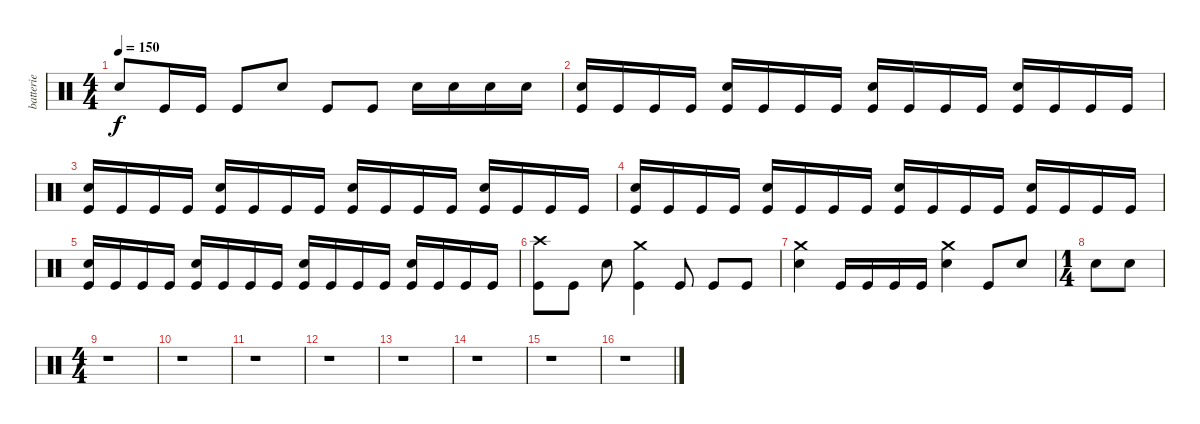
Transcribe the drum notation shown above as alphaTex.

\track ("batterie" "batterie") {instrument percussion}
\staff {score}
\articulation defaults
\ts (4 4)
\tempo 150
\clef neutral
\ks c "Snare (hit) 2".8{dy f} "Kick (hit)".16 "Kick (hit)".16 "Kick (hit)".8 "Snare (hit) 2".8 "Kick (hit)".8 "Kick (hit)".8 "Snare (hit) 2".16 "Snare (hit) 2".16 "Snare (hit) 2".16 "Snare (hit) 2".16
|
("Snare (hit) 2" "Kick (hit)").16 "Kick (hit)".16 "Kick (hit)".16 "Kick (hit)".16 ("Snare (hit) 2" "Kick (hit)").16 "Kick (hit)".16 "Kick (hit)".16 "Kick (hit)".16 ("Snare (hit) 2" "Kick (hit)").16 "Kick (hit)".16 "Kick (hit)".16 "Kick (hit)".16 ("Snare (hit) 2" "Kick (hit)").16 "Kick (hit)".16 "Kick (hit)".16 "Kick (hit)".16 |
("Snare (hit) 2" "Kick (hit)").16 "Kick (hit)".16 "Kick (hit)".16 "Kick (hit)".16 ("Snare (hit) 2" "Kick (hit)").16 "Kick (hit)".16 "Kick (hit)".16 "Kick (hit)".16 ("Snare (hit) 2" "Kick (hit)").16 "Kick (hit)".16 "Kick (hit)".16 "Kick (hit)".16 ("Snare (hit) 2" "Kick (hit)").16 "Kick (hit)".16 "Kick (hit)".16 "Kick (hit)".16 |
("Snare (hit) 2" "Kick (hit)").16 "Kick (hit)".16 "Kick (hit)".16 "Kick (hit)".16 ("Snare (hit) 2" "Kick (hit)").16 "Kick (hit)".16 "Kick (hit)".16 "Kick (hit)".16 ("Snare (hit) 2" "Kick (hit)").16 "Kick (hit)".16 "Kick (hit)".16 "Kick (hit)".16 ("Snare (hit) 2" "Kick (hit)").16 "Kick (hit)".16 "Kick (hit)".16 "Kick (hit)".16 |
("Snare (hit) 2" "Kick (hit)").16 "Kick (hit)".16 "Kick (hit)".16 "Kick (hit)".16 ("Snare (hit) 2" "Kick (hit)").16 "Kick (hit)".16 "Kick (hit)".16 "Kick (hit)".16 ("Snare (hit) 2" "Kick (hit)").16 "Kick (hit)".16 "Kick (hit)".16 "Kick (hit)".16 ("Snare (hit) 2" "Kick (hit)").16 "Kick (hit)".16 "Kick (hit)".16 "Kick (hit)".16 |
("Crash high (hit)" "Kick (hit)").8 "Kick (hit)".8 "Snare (hit) 2".8 ("Crash medium (hit)" "Kick (hit)").4 "Kick (hit)".8 "Kick (hit)".8 "Kick (hit)".8 |
("Crash medium (hit)" "Snare (hit) 2").4 "Kick (hit)".16 "Kick (hit)".16 "Kick (hit)".16 "Kick (hit)".16 ("Crash medium (hit)" "Snare (hit) 2").4 "Kick (hit)".8 "Snare (hit) 2".8 |
\ts (1 4)
"Snare (hit) 2".8 "Snare (hit) 2".8 |
\ts (4 4)
r.1 |
r.1 |
r.1 |
r.1 |
r.1 |
r.1 |
r.1 |
r.1
